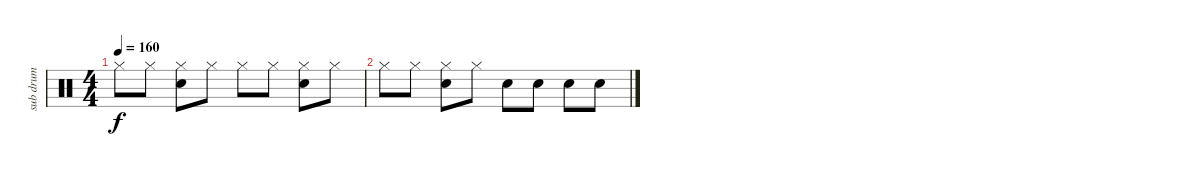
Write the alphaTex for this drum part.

\track ("sub drum" "sub drum") {instrument percussion}
\staff {score}
\articulation defaults
\ts (4 4)
\tempo 160
\clef neutral
\ks c "Hi-Hat (closed)".8{dy f} "Hi-Hat (closed)".8
("Hi-Hat (closed)" "Electric Snare (hit)").8 "Hi-Hat (closed)".8 "Hi-Hat (closed)".8 "Hi-Hat (closed)".8 ("Hi-Hat (closed)" "Electric Snare (hit)").8 "Hi-Hat (closed)".8 |
"Hi-Hat (closed)".8 "Hi-Hat (closed)".8 ("Hi-Hat (closed)" "Electric Snare (hit)").8 "Hi-Hat (closed)".8 "Electric Snare (hit)".8 "Electric Snare (hit)".8 "Electric Snare (hit)".8 "Electric Snare (hit)".8
